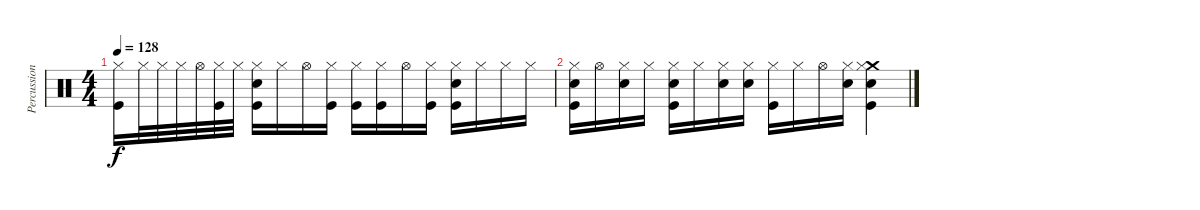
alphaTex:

\track ("Percussion" "Percussion") {instrument percussion}
\staff {score}
\articulation defaults
\ts (4 4)
\tempo 128
\clef neutral
\ks c
("Kick (hit)" "Hi-Hat (closed)").16{dy f} "Hi-Hat (closed)".32 "Hi-Hat (closed)".32 "Hi-Hat (closed)".32 "Hi-Hat (open)".32 ("Kick (hit)" "Hi-Hat (closed)").32 "Hi-Hat (closed)".32 ("Kick (hit)" "Snare (hit) 2" "Hi-Hat (closed)").16 "Hi-Hat (closed)".16 "Hi-Hat (open)".16 ("Kick (hit)" "Hi-Hat (closed)").16 ("Kick (hit)" "Hi-Hat (closed)").16 ("Kick (hit)" "Hi-Hat (closed)").16 "Hi-Hat (open)".16 ("Kick (hit)" "Hi-Hat (closed)").16 ("Kick (hit)" "Snare (hit) 2" "Hi-Hat (closed)").16 "Hi-Hat (closed)".16 "Hi-Hat (closed)".16 "Hi-Hat (closed)".16 |
("Kick (hit)" "Snare (hit) 2" "Hi-Hat (closed)").16 "Hi-Hat (open)".16 ("Snare (hit) 2" "Hi-Hat (closed)").16 "Hi-Hat (closed)".16 ("Kick (hit)" "Snare (hit) 2" "Hi-Hat (closed)").16 "Hi-Hat (closed)".16 ("Snare (hit) 2" "Hi-Hat (closed)").16 ("Snare (hit) 2" "Hi-Hat (closed)").16 ("Kick (hit)" "Hi-Hat (closed)").16 "Hi-Hat (closed)".16 "Hi-Hat (open)".16 ("Snare (hit) 2" "Hi-Hat (closed)").16 ("Kick (hit)" "Snare (hit) 2" "Crash medium (hit)" "Hi-Hat (closed)").4
